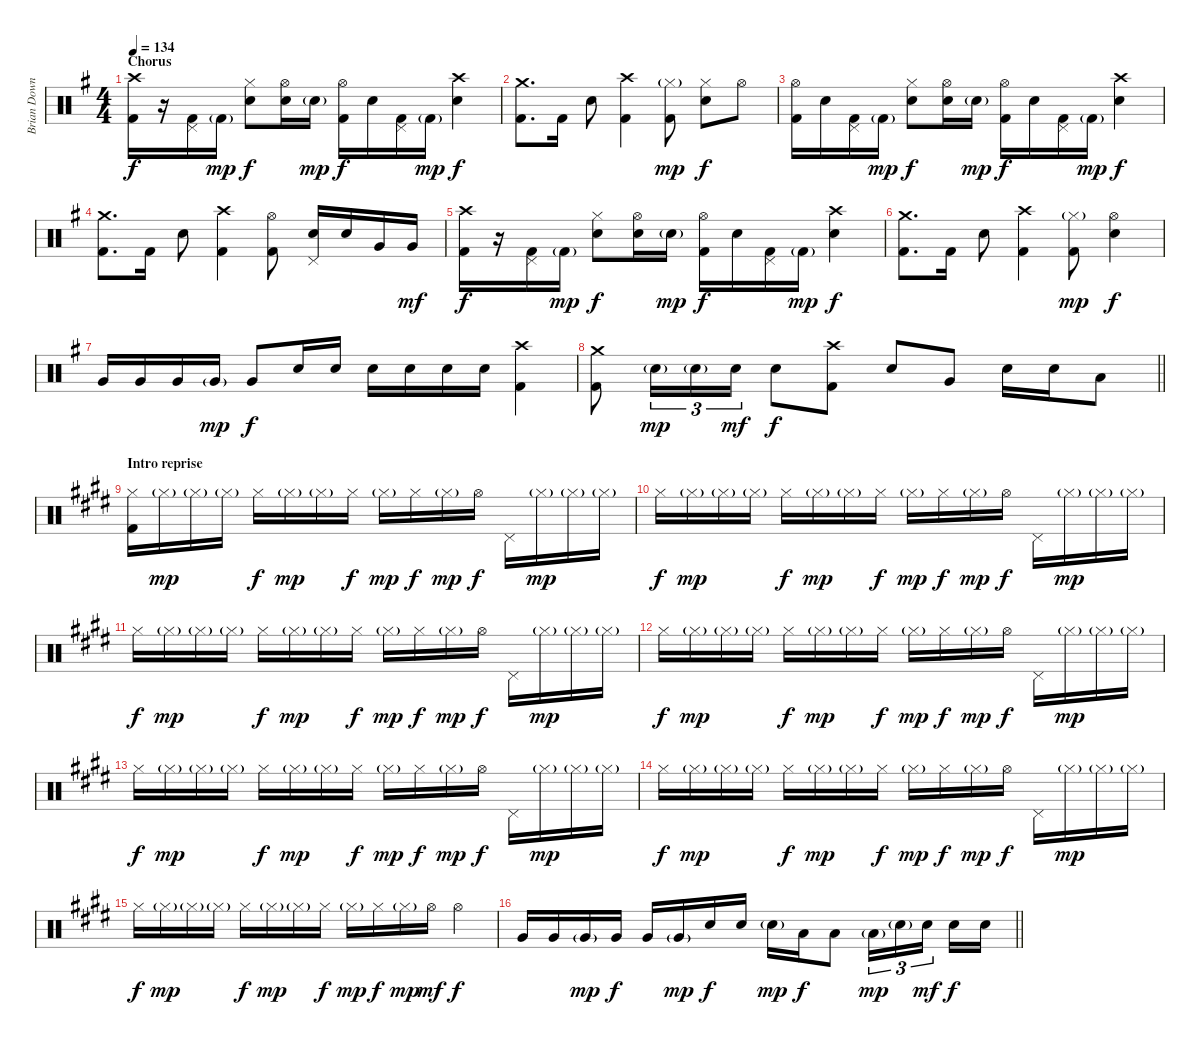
\track ("Brian Downey" "Brian Down") {instrument percussion}
\staff {score}
\articulation defaults
\ts (4 4)
\section ("" "Chorus")
\tempo 134
\clef neutral
\ks g
("Crash high (hit)" "Kick (hit) 2").16{dy f} r.16 ("Pedal Hi-Hat (hit)" "Kick (hit) 2").16 "Kick (hit) 2"{g}.16{dy mp} ("Hi-Hat (closed)" "Electric Snare (hit)").8{dy f} ("Hi-Hat (open)" "Electric Snare (hit)").16 "Electric Snare (hit)"{g}.16{dy mp} ("Hi-Hat (open)" "Kick (hit) 2").16{dy f} "Electric Snare (hit)".16 ("Pedal Hi-Hat (hit)" "Kick (hit) 2").16 "Kick (hit) 2"{g}.16{dy mp} ("Crash high (hit)" "Electric Snare (hit)").4{dy f} |
("Crash medium (hit)" "Kick (hit) 2").8{d} "Kick (hit) 2".16 "Electric Snare (hit)".8 ("Crash high (hit)" "Kick (hit) 2").4 ("Hi-Hat (closed)"{g} "Kick (hit) 2").8{dy mp} ("Hi-Hat (closed)" "Electric Snare (hit)").8{dy f} "Hi-Hat (open)".8 |
("Hi-Hat (open)" "Kick (hit) 2").16 "Electric Snare (hit)".16 ("Pedal Hi-Hat (hit)" "Kick (hit) 2").16 "Kick (hit) 2"{g}.16{dy mp} ("Hi-Hat (closed)" "Electric Snare (hit)").8{dy f} ("Hi-Hat (open)" "Electric Snare (hit)").16 "Electric Snare (hit)"{g}.16{dy mp} ("Hi-Hat (open)" "Kick (hit) 2").16{dy f} "Electric Snare (hit)".16 ("Pedal Hi-Hat (hit)" "Kick (hit) 2").16 "Kick (hit) 2"{g}.16{dy mp} ("Crash high (hit)" "Electric Snare (hit)").4{dy f} |
("Crash medium (hit)" "Kick (hit) 2").8{d} "Kick (hit) 2".16 "Electric Snare (hit)".8 ("Crash high (hit)" "Kick (hit) 2").4 ("Hi-Hat (open)" "Kick (hit) 2").8 ("Pedal Hi-Hat (hit)" "Electric Snare (hit)").16 "Electric Snare (hit)".16 "Very Low Tom (hit)".16 "Very Low Tom (hit)".16{dy mf} |
("Crash high (hit)" "Kick (hit) 2").16{dy f} r.16 ("Pedal Hi-Hat (hit)" "Kick (hit) 2").16 "Kick (hit) 2"{g}.16{dy mp} ("Hi-Hat (closed)" "Electric Snare (hit)").8{dy f} ("Hi-Hat (open)" "Electric Snare (hit)").16 "Electric Snare (hit)"{g}.16{dy mp} ("Hi-Hat (open)" "Kick (hit) 2").16{dy f} "Electric Snare (hit)".16 ("Pedal Hi-Hat (hit)" "Kick (hit) 2").16 "Kick (hit) 2"{g}.16{dy mp} ("Crash high (hit)" "Electric Snare (hit)").4{dy f} |
("Crash medium (hit)" "Kick (hit) 2").8{d} "Kick (hit) 2".16 "Electric Snare (hit)".8 ("Crash high (hit)" "Kick (hit) 2").4 ("Hi-Hat (closed)"{g} "Kick (hit) 2").8{dy mp} ("Hi-Hat (open)" "Electric Snare (hit)").4{dy f} |
"Very Low Tom (hit)".16 "Very Low Tom (hit)".16 "Very Low Tom (hit)".16 "Very Low Tom (hit)"{g}.16{dy mp} "Very Low Tom (hit)".8{dy f} "Electric Snare (hit)".16 "Electric Snare (hit)".16 "Electric Snare (hit)".16 "Electric Snare (hit)".16 "Electric Snare (hit)".16 "Electric Snare (hit)".16 ("Crash high (hit)" "Kick (hit) 2").4 |
\barLineRight lightlight
("Crash medium (hit)" "Kick (hit) 2").8 "Electric Snare (hit)"{g}.16{tu (3 2) dy mp} "Electric Snare (hit)"{g}.16{tu (3 2)} "Electric Snare (hit)".16{tu (3 2) dy mf} "Electric Snare (hit)".8{dy f} ("Crash high (hit)" "Kick (hit) 2").8 "Electric Snare (hit)".8 "Very Low Tom (hit)".8 "Electric Snare (hit)".16 "Electric Snare (hit)".16 "Low Floor Tom (hit)".8 |
\section ("" "Intro reprise")
\ks e
("Hi-Hat (closed)" "Kick (hit) 2").16 "Hi-Hat (closed)"{g}.16{dy mp} "Hi-Hat (closed)"{g}.16 "Hi-Hat (closed)"{g}.16 "Hi-Hat (closed)".16{dy f} "Hi-Hat (closed)"{g}.16{dy mp} "Hi-Hat (closed)"{g}.16 "Hi-Hat (closed)".16{dy f} "Hi-Hat (closed)"{g}.16{dy mp} "Hi-Hat (closed)".16{dy f} "Hi-Hat (closed)"{g}.16{dy mp} "Hi-Hat (open)".16{dy f} "Pedal Hi-Hat (hit)".16 "Hi-Hat (closed)"{g}.16{dy mp} "Hi-Hat (closed)"{g}.16 "Hi-Hat (closed)"{g}.16 |
"Hi-Hat (closed)".16{dy f} "Hi-Hat (closed)"{g}.16{dy mp} "Hi-Hat (closed)"{g}.16 "Hi-Hat (closed)"{g}.16 "Hi-Hat (closed)".16{dy f} "Hi-Hat (closed)"{g}.16{dy mp} "Hi-Hat (closed)"{g}.16 "Hi-Hat (closed)".16{dy f} "Hi-Hat (closed)"{g}.16{dy mp} "Hi-Hat (closed)".16{dy f} "Hi-Hat (closed)"{g}.16{dy mp} "Hi-Hat (open)".16{dy f} "Pedal Hi-Hat (hit)".16 "Hi-Hat (closed)"{g}.16{dy mp} "Hi-Hat (closed)"{g}.16 "Hi-Hat (closed)"{g}.16 |
"Hi-Hat (closed)".16{dy f} "Hi-Hat (closed)"{g}.16{dy mp} "Hi-Hat (closed)"{g}.16 "Hi-Hat (closed)"{g}.16 "Hi-Hat (closed)".16{dy f} "Hi-Hat (closed)"{g}.16{dy mp} "Hi-Hat (closed)"{g}.16 "Hi-Hat (closed)".16{dy f} "Hi-Hat (closed)"{g}.16{dy mp} "Hi-Hat (closed)".16{dy f} "Hi-Hat (closed)"{g}.16{dy mp} "Hi-Hat (open)".16{dy f} "Pedal Hi-Hat (hit)".16 "Hi-Hat (closed)"{g}.16{dy mp} "Hi-Hat (closed)"{g}.16 "Hi-Hat (closed)"{g}.16 |
"Hi-Hat (closed)".16{dy f} "Hi-Hat (closed)"{g}.16{dy mp} "Hi-Hat (closed)"{g}.16 "Hi-Hat (closed)"{g}.16 "Hi-Hat (closed)".16{dy f} "Hi-Hat (closed)"{g}.16{dy mp} "Hi-Hat (closed)"{g}.16 "Hi-Hat (closed)".16{dy f} "Hi-Hat (closed)"{g}.16{dy mp} "Hi-Hat (closed)".16{dy f} "Hi-Hat (closed)"{g}.16{dy mp} "Hi-Hat (open)".16{dy f} "Pedal Hi-Hat (hit)".16 "Hi-Hat (closed)"{g}.16{dy mp} "Hi-Hat (closed)"{g}.16 "Hi-Hat (closed)"{g}.16 |
"Hi-Hat (closed)".16{dy f} "Hi-Hat (closed)"{g}.16{dy mp} "Hi-Hat (closed)"{g}.16 "Hi-Hat (closed)"{g}.16 "Hi-Hat (closed)".16{dy f} "Hi-Hat (closed)"{g}.16{dy mp} "Hi-Hat (closed)"{g}.16 "Hi-Hat (closed)".16{dy f} "Hi-Hat (closed)"{g}.16{dy mp} "Hi-Hat (closed)".16{dy f} "Hi-Hat (closed)"{g}.16{dy mp} "Hi-Hat (open)".16{dy f} "Pedal Hi-Hat (hit)".16 "Hi-Hat (closed)"{g}.16{dy mp} "Hi-Hat (closed)"{g}.16 "Hi-Hat (closed)"{g}.16 |
"Hi-Hat (closed)".16{dy f} "Hi-Hat (closed)"{g}.16{dy mp} "Hi-Hat (closed)"{g}.16 "Hi-Hat (closed)"{g}.16 "Hi-Hat (closed)".16{dy f} "Hi-Hat (closed)"{g}.16{dy mp} "Hi-Hat (closed)"{g}.16 "Hi-Hat (closed)".16{dy f} "Hi-Hat (closed)"{g}.16{dy mp} "Hi-Hat (closed)".16{dy f} "Hi-Hat (closed)"{g}.16{dy mp} "Hi-Hat (open)".16{dy f} "Pedal Hi-Hat (hit)".16 "Hi-Hat (closed)"{g}.16{dy mp} "Hi-Hat (closed)"{g}.16 "Hi-Hat (closed)"{g}.16 |
"Hi-Hat (closed)".16{dy f} "Hi-Hat (closed)"{g}.16{dy mp} "Hi-Hat (closed)"{g}.16 "Hi-Hat (closed)"{g}.16 "Hi-Hat (closed)".16{dy f} "Hi-Hat (closed)"{g}.16{dy mp} "Hi-Hat (closed)"{g}.16 "Hi-Hat (closed)".16{dy f} "Hi-Hat (closed)"{g}.16{dy mp} "Hi-Hat (closed)".16{dy f} "Hi-Hat (closed)"{g}.16{dy mp} "Hi-Hat (open)".16{dy mf} "Hi-Hat (open)".4{dy f} |
\barLineRight lightlight "Very Low Tom (hit)".16 "Very Low Tom (hit)".16 "Very Low Tom (hit)"{g}.16{dy mp} "Very Low Tom (hit)".16{dy f} "Very Low Tom (hit)".16 "Very Low Tom (hit)"{g}.16{dy mp} "Electric Snare (hit)".16{dy f} "Electric Snare (hit)".16 "Electric Snare (hit)"{g}.16{dy mp} "Low Tom (hit)".16{dy f} "Low Tom (hit)".8 "Low Tom (hit)"{g}.16{tu (3 2) dy mp} "Electric Snare (hit)"{g}.16{tu (3 2)} "Electric Snare (hit)".16{tu (3 2) dy mf beam splitsecondary} "Electric Snare (hit)".16{dy f} "Electric Snare (hit)".16
